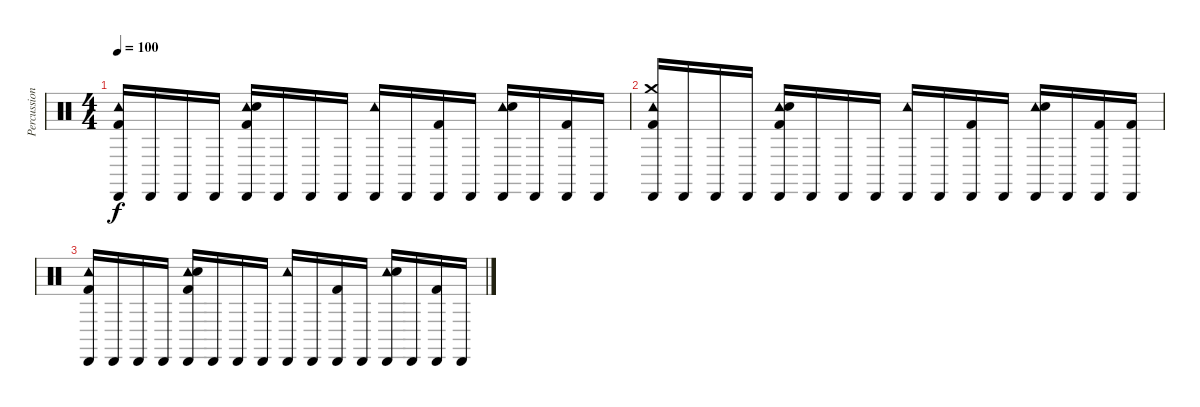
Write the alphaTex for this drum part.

\track ("Percussions" "Percussion") {instrument percussion}
\staff {score}
\articulation defaults
\ts (4 4)
\tempo 100
\clef neutral
\ks c
("Cabasa (hit)" "Tambourine (hit)" "Kick (hit) 2").16{dy f} "Cabasa (hit)".16 "Cabasa (hit)".16 "Cabasa (hit)".16 ("Cabasa (hit)" "Tambourine (hit)" "Hand Clap (hit)" "Kick (hit) 2").16 "Cabasa (hit)".16 "Cabasa (hit)".16 "Cabasa (hit)".16 ("Cabasa (hit)" "Tambourine (hit)").16 "Cabasa (hit)".16 ("Cabasa (hit)" "Kick (hit) 2").16 "Cabasa (hit)".16 ("Cabasa (hit)" "Tambourine (hit)" "Hand Clap (hit)").16 "Cabasa (hit)".16 ("Cabasa (hit)" "Kick (hit) 2").16 "Cabasa (hit)".16 |
("Cabasa (hit)" "Tambourine (hit)" "Crash medium (hit)" "Kick (hit) 2").16 "Cabasa (hit)".16 "Cabasa (hit)".16 "Cabasa (hit)".16 ("Cabasa (hit)" "Tambourine (hit)" "Hand Clap (hit)" "Kick (hit) 2").16 "Cabasa (hit)".16 "Cabasa (hit)".16 "Cabasa (hit)".16 ("Cabasa (hit)" "Tambourine (hit)").16 "Cabasa (hit)".16 ("Cabasa (hit)" "Kick (hit) 2").16 "Cabasa (hit)".16 ("Cabasa (hit)" "Tambourine (hit)" "Hand Clap (hit)").16 "Cabasa (hit)".16 ("Cabasa (hit)" "Kick (hit) 2").16 ("Cabasa (hit)" "Kick (hit) 2").16 |
("Cabasa (hit)" "Tambourine (hit)" "Kick (hit) 2").16 "Cabasa (hit)".16 "Cabasa (hit)".16 "Cabasa (hit)".16 ("Cabasa (hit)" "Tambourine (hit)" "Hand Clap (hit)" "Kick (hit) 2").16 "Cabasa (hit)".16 "Cabasa (hit)".16 "Cabasa (hit)".16 ("Cabasa (hit)" "Tambourine (hit)").16 "Cabasa (hit)".16 ("Cabasa (hit)" "Kick (hit) 2").16 "Cabasa (hit)".16 ("Cabasa (hit)" "Tambourine (hit)" "Hand Clap (hit)").16 "Cabasa (hit)".16 ("Cabasa (hit)" "Kick (hit) 2").16 "Cabasa (hit)".16
